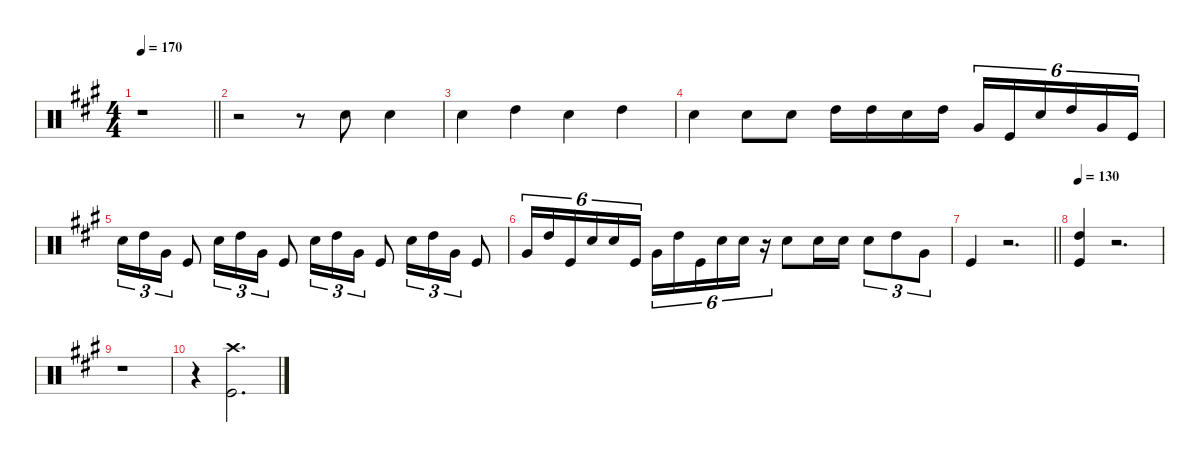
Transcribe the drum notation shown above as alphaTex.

\defaultSystemsLayout 4
\hideDynamics
\bracketExtendMode nobrackets
\singleTrackTrackNamePolicy hidden
\multiTrackTrackNamePolicy hidden
\firstSystemTrackNameMode fullname
\firstSystemTrackNameOrientation horizontal
\otherSystemsTrackNameOrientation horizontal
\track ("Percussion" "drm.") {defaultSystemsLayout 4 instrument percussion}
\staff {score}
\articulation defaults
\ts (4 4)
\tempo 170
\clef neutral
\barLineRight lightlight
\ks a
r.1{dy f beam Down} |
r.2{beam Down} r.8{beam Down} "Snare (hit) 2"{acc forcenatural}.8{beam Down} "Snare (hit) 2"{acc forcenatural}.4{beam Down} |
"Snare (hit) 2"{acc forcenatural}.4{beam Down} "High Tom (hit)"{acc forcenatural}.4{beam Down} "Snare (hit) 2"{acc forcenatural}.4{beam Down} "High Tom (hit)"{acc forcenatural}.4{beam Down} |
"Snare (hit) 2"{acc forcenatural}.4{beam Down} "Snare (hit) 2"{acc forcenatural}.8{beam Down} "Snare (hit) 2"{acc forcenatural}.8{beam Down} "High Tom (hit)"{acc forcenatural}.16{beam Down} "High Tom (hit)"{acc forcenatural}.16{beam Down} "Snare (hit) 2"{acc forcenatural}.16{beam Down} "High Tom (hit)"{acc forcenatural}.16{beam Down} "Very Low Tom (hit)"{acc forcenatural}.16{tu (6 4) beam Up} "Kick (hit)"{acc forcenatural}.16{tu (6 4) beam Up} "Snare (hit) 2"{acc forcenatural}.16{tu (6 4) beam Up} "High Tom (hit)"{acc forcenatural}.16{tu (6 4) beam Up} "Very Low Tom (hit)"{acc forcenatural}.16{tu (6 4) beam Up} "Kick (hit)"{acc forcenatural}.16{tu (6 4) beam Up} |
"Snare (hit) 2"{acc forcenatural}.16{tu (3 2) beam Down} "High Tom (hit)"{acc forcenatural}.16{tu (3 2) beam Down} "Very Low Tom (hit)"{acc forcenatural}.16{tu (3 2) beam Down} "Kick (hit)"{acc forcenatural}.8{beam Up} "Snare (hit) 2"{acc forcenatural}.16{tu (3 2) beam Down} "High Tom (hit)"{acc forcenatural}.16{tu (3 2) beam Down} "Very Low Tom (hit)"{acc forcenatural}.16{tu (3 2) beam Down} "Kick (hit)"{acc forcenatural}.8{beam Up} "Snare (hit) 2"{acc forcenatural}.16{tu (3 2) beam Down} "High Tom (hit)"{acc forcenatural}.16{tu (3 2) beam Down} "Very Low Tom (hit)"{acc forcenatural}.16{tu (3 2) beam Down} "Kick (hit)"{acc forcenatural}.8{beam Up} "Snare (hit) 2"{acc forcenatural}.16{tu (3 2) beam Down} "High Tom (hit)"{acc forcenatural}.16{tu (3 2) beam Down} "Very Low Tom (hit)"{acc forcenatural}.16{tu (3 2) beam Down} "Kick (hit)"{acc forcenatural}.8{beam Up} |
"Very Low Tom (hit)"{acc forcenatural}.16{tu (6 4) beam Up} "High Tom (hit)"{acc forcenatural}.16{tu (6 4) beam Up} "Kick (hit)"{acc forcenatural}.16{tu (6 4) beam Up} "Snare (hit) 2"{acc forcenatural}.16{tu (6 4) beam Up} "Snare (hit) 2"{acc forcenatural}.16{tu (6 4) beam Up} "Kick (hit)"{acc forcenatural}.16{tu (6 4) beam Up} "Very Low Tom (hit)"{acc forcenatural}.16{tu (6 4) beam Down} "High Tom (hit)"{acc forcenatural}.16{tu (6 4) beam Down} "Kick (hit)"{acc forcenatural}.16{tu (6 4) beam Down} "Snare (hit) 2"{acc forcenatural}.16{tu (6 4) beam Down} "Snare (hit) 2"{acc forcenatural}.16{tu (6 4) beam Down} r.16{tu (6 4) beam Down} "Snare (hit) 2"{acc forcenatural}.8{beam Down} "Snare (hit) 2"{acc forcenatural}.16{beam Down} "Snare (hit) 2"{acc forcenatural}.16{beam Down} "Snare (hit) 2"{acc forcenatural}.8{tu (3 2) beam Down} "High Tom (hit)"{acc forcenatural}.8{tu (3 2) beam Down} "Very Low Tom (hit)"{acc forcenatural}.8{tu (3 2) beam Down} |
\barLineRight lightlight "Kick (hit)"{acc forcenatural}.4{beam Up}
r.2{d beam Up} |
\tempo 130
("High Tom (hit)"{acc forcenatural} "Kick (hit)"{acc forcenatural}).4{beam Up} r.2{d beam Up} |
r.1{beam Down} |
r.4{beam Down} ("Crash high (hit)"{acc forcenatural} "Kick (hit)"{acc forcenatural}).2{d beam Down}
